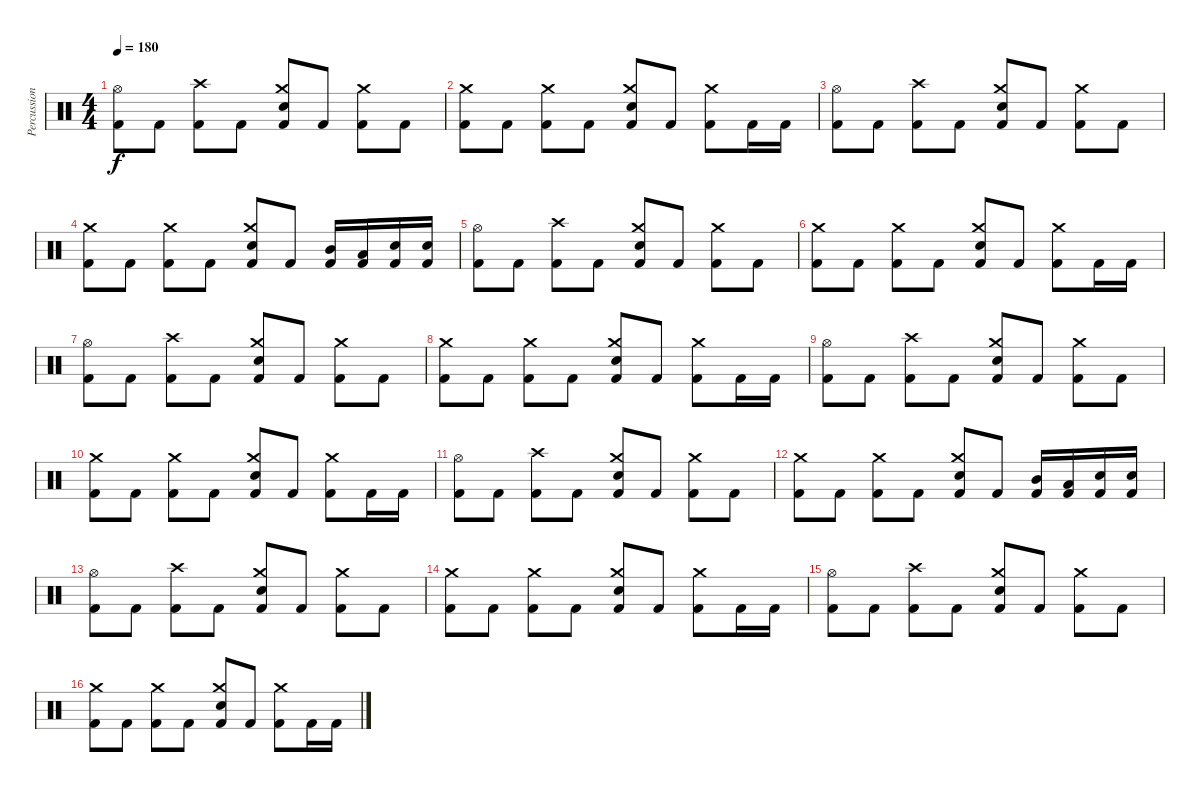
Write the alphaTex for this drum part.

\track ("Percussion" "Percussion") {instrument percussion}
\staff {score}
\articulation defaults
\ts (4 4)
\tempo 180
\clef neutral
\ks c
("Hi-Hat (open)" "Kick (hit) 2").8{dy f} "Kick (hit) 2".8 ("Crash high (hit)" "Kick (hit) 2").8 "Kick (hit) 2".8 ("Crash medium (hit)" "Electric Snare (hit)" "Kick (hit) 2").8 "Kick (hit) 2".8 ("Crash medium (hit)" "Kick (hit) 2").8 "Kick (hit) 2".8 |
("Crash medium (hit)" "Kick (hit) 2").8 "Kick (hit) 2".8 ("Crash medium (hit)" "Kick (hit) 2").8 "Kick (hit) 2".8 ("Crash medium (hit)" "Electric Snare (hit)" "Kick (hit) 2").8 "Kick (hit) 2".8 ("Crash medium (hit)" "Kick (hit) 2").8 "Kick (hit) 2".16 "Kick (hit) 2".16 |
("Hi-Hat (open)" "Kick (hit) 2").8 "Kick (hit) 2".8 ("Crash high (hit)" "Kick (hit) 2").8 "Kick (hit) 2".8 ("Crash medium (hit)" "Electric Snare (hit)" "Kick (hit) 2").8 "Kick (hit) 2".8 ("Crash medium (hit)" "Kick (hit) 2").8 "Kick (hit) 2".8 |
("Crash medium (hit)" "Kick (hit) 2").8 "Kick (hit) 2".8 ("Crash medium (hit)" "Kick (hit) 2").8 "Kick (hit) 2".8 ("Crash medium (hit)" "Electric Snare (hit)" "Kick (hit) 2").8 "Kick (hit) 2".8 ("Mid Tom (hit)" "Kick (hit) 2").16 ("Low Tom (hit)" "Kick (hit) 2").16 ("Electric Snare (hit)" "Kick (hit) 2").16 ("Electric Snare (hit)" "Kick (hit) 2").16 |
("Hi-Hat (open)" "Kick (hit) 2").8 "Kick (hit) 2".8 ("Crash high (hit)" "Kick (hit) 2").8 "Kick (hit) 2".8 ("Crash medium (hit)" "Electric Snare (hit)" "Kick (hit) 2").8 "Kick (hit) 2".8 ("Crash medium (hit)" "Kick (hit) 2").8 "Kick (hit) 2".8 |
("Crash medium (hit)" "Kick (hit) 2").8 "Kick (hit) 2".8 ("Crash medium (hit)" "Kick (hit) 2").8 "Kick (hit) 2".8 ("Crash medium (hit)" "Electric Snare (hit)" "Kick (hit) 2").8 "Kick (hit) 2".8 ("Crash medium (hit)" "Kick (hit) 2").8 "Kick (hit) 2".16 "Kick (hit) 2".16 |
("Hi-Hat (open)" "Kick (hit) 2").8 "Kick (hit) 2".8 ("Crash high (hit)" "Kick (hit) 2").8 "Kick (hit) 2".8 ("Crash medium (hit)" "Electric Snare (hit)" "Kick (hit) 2").8 "Kick (hit) 2".8 ("Crash medium (hit)" "Kick (hit) 2").8 "Kick (hit) 2".8 |
("Crash medium (hit)" "Kick (hit) 2").8 "Kick (hit) 2".8 ("Crash medium (hit)" "Kick (hit) 2").8 "Kick (hit) 2".8 ("Crash medium (hit)" "Electric Snare (hit)" "Kick (hit) 2").8 "Kick (hit) 2".8 ("Crash medium (hit)" "Kick (hit) 2").8 "Kick (hit) 2".16 "Kick (hit) 2".16 |
("Hi-Hat (open)" "Kick (hit) 2").8 "Kick (hit) 2".8 ("Crash high (hit)" "Kick (hit) 2").8 "Kick (hit) 2".8 ("Crash medium (hit)" "Electric Snare (hit)" "Kick (hit) 2").8 "Kick (hit) 2".8 ("Crash medium (hit)" "Kick (hit) 2").8 "Kick (hit) 2".8 |
("Crash medium (hit)" "Kick (hit) 2").8 "Kick (hit) 2".8 ("Crash medium (hit)" "Kick (hit) 2").8 "Kick (hit) 2".8 ("Crash medium (hit)" "Electric Snare (hit)" "Kick (hit) 2").8 "Kick (hit) 2".8 ("Crash medium (hit)" "Kick (hit) 2").8 "Kick (hit) 2".16 "Kick (hit) 2".16 |
("Hi-Hat (open)" "Kick (hit) 2").8 "Kick (hit) 2".8 ("Crash high (hit)" "Kick (hit) 2").8 "Kick (hit) 2".8 ("Crash medium (hit)" "Electric Snare (hit)" "Kick (hit) 2").8 "Kick (hit) 2".8 ("Crash medium (hit)" "Kick (hit) 2").8 "Kick (hit) 2".8 |
("Crash medium (hit)" "Kick (hit) 2").8 "Kick (hit) 2".8 ("Crash medium (hit)" "Kick (hit) 2").8 "Kick (hit) 2".8 ("Crash medium (hit)" "Electric Snare (hit)" "Kick (hit) 2").8 "Kick (hit) 2".8 ("Mid Tom (hit)" "Kick (hit) 2").16 ("Low Tom (hit)" "Kick (hit) 2").16 ("Electric Snare (hit)" "Kick (hit) 2").16 ("Electric Snare (hit)" "Kick (hit) 2").16 |
("Hi-Hat (open)" "Kick (hit) 2").8 "Kick (hit) 2".8 ("Crash high (hit)" "Kick (hit) 2").8 "Kick (hit) 2".8 ("Crash medium (hit)" "Electric Snare (hit)" "Kick (hit) 2").8 "Kick (hit) 2".8 ("Crash medium (hit)" "Kick (hit) 2").8 "Kick (hit) 2".8 |
("Crash medium (hit)" "Kick (hit) 2").8 "Kick (hit) 2".8 ("Crash medium (hit)" "Kick (hit) 2").8 "Kick (hit) 2".8 ("Crash medium (hit)" "Electric Snare (hit)" "Kick (hit) 2").8 "Kick (hit) 2".8 ("Crash medium (hit)" "Kick (hit) 2").8 "Kick (hit) 2".16 "Kick (hit) 2".16 |
("Hi-Hat (open)" "Kick (hit) 2").8 "Kick (hit) 2".8 ("Crash high (hit)" "Kick (hit) 2").8 "Kick (hit) 2".8 ("Crash medium (hit)" "Electric Snare (hit)" "Kick (hit) 2").8 "Kick (hit) 2".8 ("Crash medium (hit)" "Kick (hit) 2").8 "Kick (hit) 2".8 |
("Crash medium (hit)" "Kick (hit) 2").8 "Kick (hit) 2".8 ("Crash medium (hit)" "Kick (hit) 2").8 "Kick (hit) 2".8 ("Crash medium (hit)" "Electric Snare (hit)" "Kick (hit) 2").8 "Kick (hit) 2".8 ("Crash medium (hit)" "Kick (hit) 2").8 "Kick (hit) 2".16 "Kick (hit) 2".16
